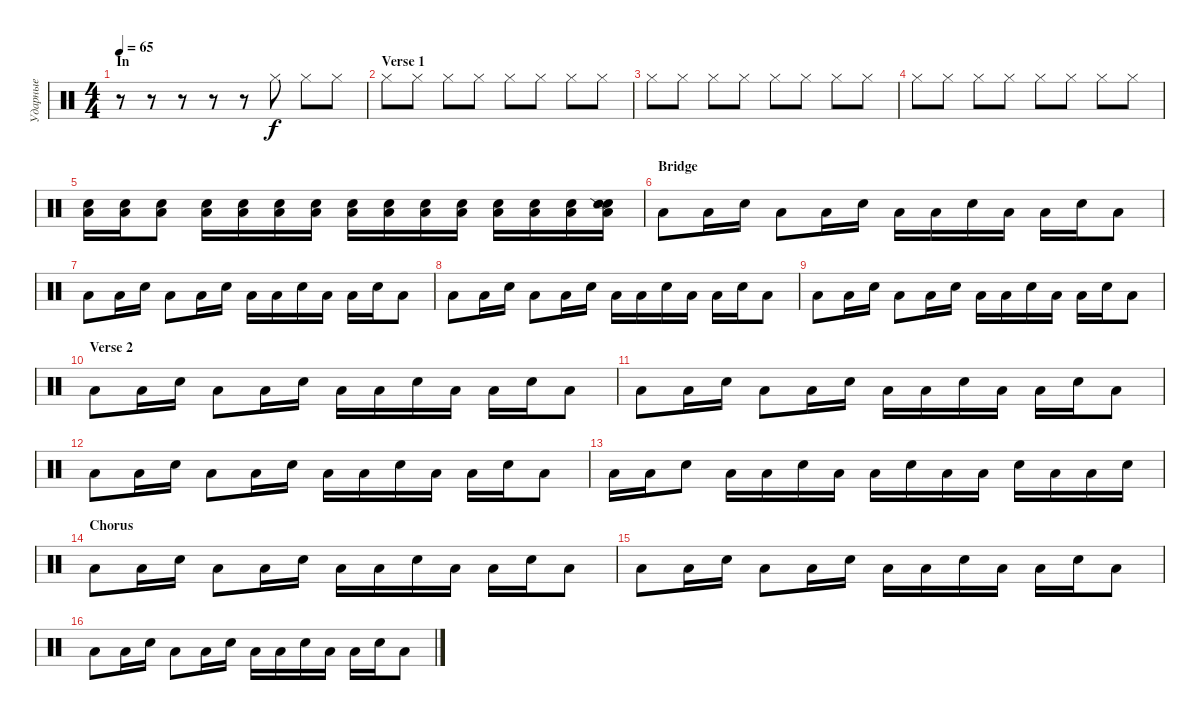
\track ("Ударные" "Ударные") {instrument percussion}
\staff {score}
\articulation defaults
\ts (4 4)
\section ("" "In")
\tempo 65
\clef neutral
\ks c
r.8{dy f} r.8 r.8 r.8 r.8 "Hi-Hat (closed)".8 "Hi-Hat (closed)".8 "Hi-Hat (closed)".8 |
\section ("" "Verse 1")
"Hi-Hat (closed)".8 "Hi-Hat (closed)".8 "Hi-Hat (closed)".8 "Hi-Hat (closed)".8 "Hi-Hat (closed)".8 "Hi-Hat (closed)".8 "Hi-Hat (closed)".8 "Hi-Hat (closed)".8 |
"Hi-Hat (closed)".8 "Hi-Hat (closed)".8 "Hi-Hat (closed)".8 "Hi-Hat (closed)".8 "Hi-Hat (closed)".8 "Hi-Hat (closed)".8 "Hi-Hat (closed)".8 "Hi-Hat (closed)".8 |
"Hi-Hat (closed)".8 "Hi-Hat (closed)".8 "Hi-Hat (closed)".8 "Hi-Hat (closed)".8 "Hi-Hat (closed)".8 "Hi-Hat (closed)".8 "Hi-Hat (closed)".8 "Hi-Hat (closed)".8 |
("Snare (hit) 2" "Low Tom (hit)").16 ("Snare (hit) 2" "Low Tom (hit)").16 ("Snare (hit) 2" "Low Tom (hit)").8 ("Snare (hit) 2" "Low Tom (hit)").16 ("Snare (hit) 2" "Low Tom (hit)").16 ("Snare (hit) 2" "Low Tom (hit)").16 ("Snare (hit) 2" "Low Tom (hit)").16 ("Snare (hit) 2" "Low Tom (hit)").16 ("Snare (hit) 2" "Low Tom (hit)").16 ("Snare (hit) 2" "Low Tom (hit)").16 ("Snare (hit) 2" "Low Tom (hit)").16 ("Snare (hit) 2" "Low Tom (hit)").16 ("Snare (hit) 2" "Low Tom (hit)").16 ("Snare (hit) 2" "Low Tom (hit)").16 ("Snare (hit) 2" "Low Tom (hit)" "Snare (side stick) 2").16 |
\section ("" "Bridge")
"Low Tom (hit)".8 "Low Tom (hit)".16 "Snare (hit) 2".16 "Low Tom (hit)".8 "Low Tom (hit)".16 "Snare (hit) 2".16 "Low Tom (hit)".16 "Low Tom (hit)".16 "Snare (hit) 2".16 "Low Tom (hit)".16 "Low Tom (hit)".16 "Snare (hit) 2".16 "Low Tom (hit)".8 |
"Low Tom (hit)".8 "Low Tom (hit)".16 "Snare (hit) 2".16 "Low Tom (hit)".8 "Low Tom (hit)".16 "Snare (hit) 2".16 "Low Tom (hit)".16 "Low Tom (hit)".16 "Snare (hit) 2".16 "Low Tom (hit)".16 "Low Tom (hit)".16 "Snare (hit) 2".16 "Low Tom (hit)".8 |
"Low Tom (hit)".8 "Low Tom (hit)".16 "Snare (hit) 2".16 "Low Tom (hit)".8 "Low Tom (hit)".16 "Snare (hit) 2".16 "Low Tom (hit)".16 "Low Tom (hit)".16 "Snare (hit) 2".16 "Low Tom (hit)".16 "Low Tom (hit)".16 "Snare (hit) 2".16 "Low Tom (hit)".8 |
"Low Tom (hit)".8 "Low Tom (hit)".16 "Snare (hit) 2".16 "Low Tom (hit)".8 "Low Tom (hit)".16 "Snare (hit) 2".16 "Low Tom (hit)".16 "Low Tom (hit)".16 "Snare (hit) 2".16 "Low Tom (hit)".16 "Low Tom (hit)".16 "Snare (hit) 2".16 "Low Tom (hit)".8 |
\section ("" "Verse 2")
"Low Tom (hit)".8 "Low Tom (hit)".16 "Snare (hit) 2".16 "Low Tom (hit)".8 "Low Tom (hit)".16 "Snare (hit) 2".16 "Low Tom (hit)".16 "Low Tom (hit)".16 "Snare (hit) 2".16 "Low Tom (hit)".16 "Low Tom (hit)".16 "Snare (hit) 2".16 "Low Tom (hit)".8 |
"Low Tom (hit)".8 "Low Tom (hit)".16 "Snare (hit) 2".16 "Low Tom (hit)".8 "Low Tom (hit)".16 "Snare (hit) 2".16 "Low Tom (hit)".16 "Low Tom (hit)".16 "Snare (hit) 2".16 "Low Tom (hit)".16 "Low Tom (hit)".16 "Snare (hit) 2".16 "Low Tom (hit)".8 |
"Low Tom (hit)".8 "Low Tom (hit)".16 "Snare (hit) 2".16 "Low Tom (hit)".8 "Low Tom (hit)".16 "Snare (hit) 2".16 "Low Tom (hit)".16 "Low Tom (hit)".16 "Snare (hit) 2".16 "Low Tom (hit)".16 "Low Tom (hit)".16 "Snare (hit) 2".16 "Low Tom (hit)".8 |
"Low Tom (hit)".16 "Low Tom (hit)".16 "Snare (hit) 2".8 "Low Tom (hit)".16 "Low Tom (hit)".16 "Snare (hit) 2".16 "Low Tom (hit)".16 "Low Tom (hit)".16 "Snare (hit) 2".16 "Low Tom (hit)".16 "Low Tom (hit)".16 "Snare (hit) 2".16 "Low Tom (hit)".16 "Low Tom (hit)".16 "Snare (hit) 2".16 |
\section ("" "Chorus")
"Low Tom (hit)".8 "Low Tom (hit)".16 "Snare (hit) 2".16 "Low Tom (hit)".8 "Low Tom (hit)".16 "Snare (hit) 2".16 "Low Tom (hit)".16 "Low Tom (hit)".16 "Snare (hit) 2".16 "Low Tom (hit)".16 "Low Tom (hit)".16 "Snare (hit) 2".16 "Low Tom (hit)".8 |
"Low Tom (hit)".8 "Low Tom (hit)".16 "Snare (hit) 2".16 "Low Tom (hit)".8 "Low Tom (hit)".16 "Snare (hit) 2".16 "Low Tom (hit)".16 "Low Tom (hit)".16 "Snare (hit) 2".16 "Low Tom (hit)".16 "Low Tom (hit)".16 "Snare (hit) 2".16 "Low Tom (hit)".8 |
"Low Tom (hit)".8 "Low Tom (hit)".16 "Snare (hit) 2".16 "Low Tom (hit)".8 "Low Tom (hit)".16 "Snare (hit) 2".16 "Low Tom (hit)".16 "Low Tom (hit)".16 "Snare (hit) 2".16 "Low Tom (hit)".16 "Low Tom (hit)".16 "Snare (hit) 2".16 "Low Tom (hit)".8
